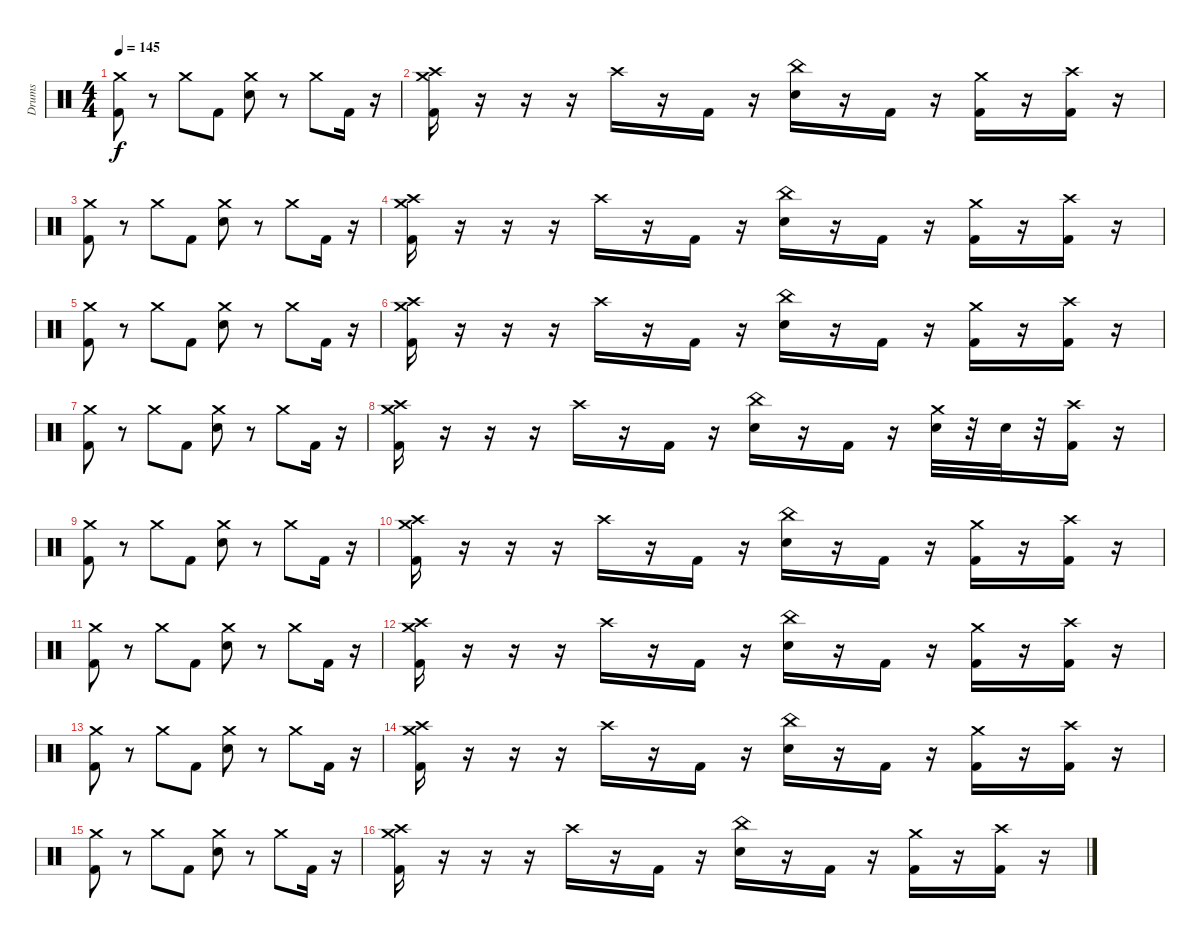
\track ("Drums" "Drums") {instrument percussion}
\staff {score}
\articulation defaults
\ts (4 4)
\tempo 145
\clef neutral
\ks c
("Crash medium (hit)" "Kick (hit) 2").8{dy f} r.8 "Crash medium (hit)".8 "Kick (hit) 2".8 ("Crash medium (hit)" "Electric Snare (hit)").8 r.8 "Crash medium (hit)".8 "Kick (hit) 2".16 r.16 |
("Crash medium (hit)" "Crash high (hit)" "Kick (hit) 2").16 r.16 r.16 r.16 "Crash high (hit)".16 r.16 "Kick (hit) 2".16 r.16 ("China (hit)" "Electric Snare (hit)").16 r.16 "Kick (hit) 2".16 r.16 ("Crash medium (hit)" "Kick (hit) 2").16 r.16 ("Crash high (hit)" "Kick (hit) 2").16 r.16 |
("Crash medium (hit)" "Kick (hit) 2").8 r.8 "Crash medium (hit)".8 "Kick (hit) 2".8 ("Crash medium (hit)" "Electric Snare (hit)").8 r.8 "Crash medium (hit)".8 "Kick (hit) 2".16 r.16 |
("Crash medium (hit)" "Crash high (hit)" "Kick (hit) 2").16 r.16 r.16 r.16 "Crash high (hit)".16 r.16 "Kick (hit) 2".16 r.16 ("China (hit)" "Electric Snare (hit)").16 r.16 "Kick (hit) 2".16 r.16 ("Crash medium (hit)" "Kick (hit) 2").16 r.16 ("Crash high (hit)" "Kick (hit) 2").16 r.16 |
("Crash medium (hit)" "Kick (hit) 2").8 r.8 "Crash medium (hit)".8 "Kick (hit) 2".8 ("Crash medium (hit)" "Electric Snare (hit)").8 r.8 "Crash medium (hit)".8 "Kick (hit) 2".16 r.16 |
("Crash medium (hit)" "Crash high (hit)" "Kick (hit) 2").16 r.16 r.16 r.16 "Crash high (hit)".16 r.16 "Kick (hit) 2".16 r.16 ("China (hit)" "Electric Snare (hit)").16 r.16 "Kick (hit) 2".16 r.16 ("Crash medium (hit)" "Kick (hit) 2").16 r.16 ("Crash high (hit)" "Kick (hit) 2").16 r.16 |
("Crash medium (hit)" "Kick (hit) 2").8 r.8 "Crash medium (hit)".8 "Kick (hit) 2".8 ("Crash medium (hit)" "Electric Snare (hit)").8 r.8 "Crash medium (hit)".8 "Kick (hit) 2".16 r.16 |
("Crash medium (hit)" "Crash high (hit)" "Kick (hit) 2").16 r.16 r.16 r.16 "Crash high (hit)".16 r.16 "Kick (hit) 2".16 r.16 ("China (hit)" "Electric Snare (hit)").16 r.16 "Kick (hit) 2".16 r.16 ("Crash medium (hit)" "Electric Snare (hit)").32 r.32 "Electric Snare (hit)".32 r.32 ("Crash high (hit)" "Kick (hit) 2").16 r.16 |
("Crash medium (hit)" "Kick (hit) 2").8 r.8 "Crash medium (hit)".8 "Kick (hit) 2".8 ("Crash medium (hit)" "Electric Snare (hit)").8 r.8 "Crash medium (hit)".8 "Kick (hit) 2".16 r.16 |
("Crash medium (hit)" "Crash high (hit)" "Kick (hit) 2").16 r.16 r.16 r.16 "Crash high (hit)".16 r.16 "Kick (hit) 2".16 r.16 ("China (hit)" "Electric Snare (hit)").16 r.16 "Kick (hit) 2".16 r.16 ("Crash medium (hit)" "Kick (hit) 2").16 r.16 ("Crash high (hit)" "Kick (hit) 2").16 r.16 |
("Crash medium (hit)" "Kick (hit) 2").8 r.8 "Crash medium (hit)".8 "Kick (hit) 2".8 ("Crash medium (hit)" "Electric Snare (hit)").8 r.8 "Crash medium (hit)".8 "Kick (hit) 2".16 r.16 |
("Crash medium (hit)" "Crash high (hit)" "Kick (hit) 2").16 r.16 r.16 r.16 "Crash high (hit)".16 r.16 "Kick (hit) 2".16 r.16 ("China (hit)" "Electric Snare (hit)").16 r.16 "Kick (hit) 2".16 r.16 ("Crash medium (hit)" "Kick (hit) 2").16 r.16 ("Crash high (hit)" "Kick (hit) 2").16 r.16 |
("Crash medium (hit)" "Kick (hit) 2").8 r.8 "Crash medium (hit)".8 "Kick (hit) 2".8 ("Crash medium (hit)" "Electric Snare (hit)").8 r.8 "Crash medium (hit)".8 "Kick (hit) 2".16 r.16 |
("Crash medium (hit)" "Crash high (hit)" "Kick (hit) 2").16 r.16 r.16 r.16 "Crash high (hit)".16 r.16 "Kick (hit) 2".16 r.16 ("China (hit)" "Electric Snare (hit)").16 r.16 "Kick (hit) 2".16 r.16 ("Crash medium (hit)" "Kick (hit) 2").16 r.16 ("Crash high (hit)" "Kick (hit) 2").16 r.16 |
("Crash medium (hit)" "Kick (hit) 2").8 r.8 "Crash medium (hit)".8 "Kick (hit) 2".8 ("Crash medium (hit)" "Electric Snare (hit)").8 r.8 "Crash medium (hit)".8 "Kick (hit) 2".16 r.16 |
("Crash medium (hit)" "Crash high (hit)" "Kick (hit) 2").16 r.16 r.16 r.16 "Crash high (hit)".16 r.16 "Kick (hit) 2".16 r.16 ("China (hit)" "Electric Snare (hit)").16 r.16 "Kick (hit) 2".16 r.16 ("Crash medium (hit)" "Kick (hit) 2").16 r.16 ("Crash high (hit)" "Kick (hit) 2").16 r.16
